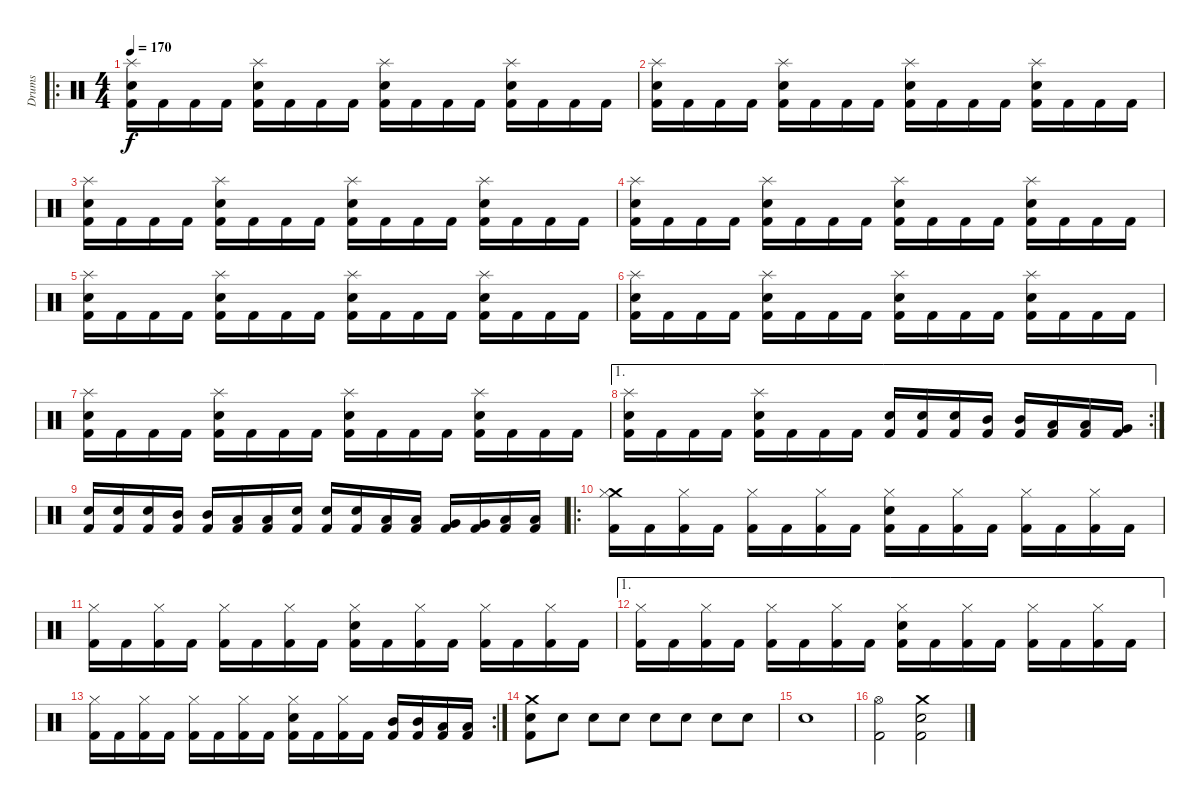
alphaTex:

\track ("Drums" "Drums") {instrument percussion}
\staff {score}
\articulation defaults
\ro
\ts (4 4)
\tempo 170
\clef neutral
\ks c
("Splash (hit)" "Snare (hit) 2" "Kick (hit) 2").16{dy f} "Kick (hit) 2".16 "Kick (hit) 2".16 "Kick (hit) 2".16 ("Splash (hit)" "Snare (hit) 2" "Kick (hit) 2").16 "Kick (hit) 2".16 "Kick (hit) 2".16 "Kick (hit) 2".16 ("Splash (hit)" "Snare (hit) 2" "Kick (hit) 2").16 "Kick (hit) 2".16 "Kick (hit) 2".16 "Kick (hit) 2".16 ("Splash (hit)" "Snare (hit) 2" "Kick (hit) 2").16 "Kick (hit) 2".16 "Kick (hit) 2".16 "Kick (hit) 2".16 |
("Splash (hit)" "Snare (hit) 2" "Kick (hit) 2").16 "Kick (hit) 2".16 "Kick (hit) 2".16 "Kick (hit) 2".16 ("Splash (hit)" "Snare (hit) 2" "Kick (hit) 2").16 "Kick (hit) 2".16 "Kick (hit) 2".16 "Kick (hit) 2".16 ("Splash (hit)" "Snare (hit) 2" "Kick (hit) 2").16 "Kick (hit) 2".16 "Kick (hit) 2".16 "Kick (hit) 2".16 ("Splash (hit)" "Snare (hit) 2" "Kick (hit) 2").16 "Kick (hit) 2".16 "Kick (hit) 2".16 "Kick (hit) 2".16 |
("Splash (hit)" "Snare (hit) 2" "Kick (hit) 2").16 "Kick (hit) 2".16 "Kick (hit) 2".16 "Kick (hit) 2".16 ("Splash (hit)" "Snare (hit) 2" "Kick (hit) 2").16 "Kick (hit) 2".16 "Kick (hit) 2".16 "Kick (hit) 2".16 ("Splash (hit)" "Snare (hit) 2" "Kick (hit) 2").16 "Kick (hit) 2".16 "Kick (hit) 2".16 "Kick (hit) 2".16 ("Splash (hit)" "Snare (hit) 2" "Kick (hit) 2").16 "Kick (hit) 2".16 "Kick (hit) 2".16 "Kick (hit) 2".16 |
("Splash (hit)" "Snare (hit) 2" "Kick (hit) 2").16 "Kick (hit) 2".16 "Kick (hit) 2".16 "Kick (hit) 2".16 ("Splash (hit)" "Snare (hit) 2" "Kick (hit) 2").16 "Kick (hit) 2".16 "Kick (hit) 2".16 "Kick (hit) 2".16 ("Splash (hit)" "Snare (hit) 2" "Kick (hit) 2").16 "Kick (hit) 2".16 "Kick (hit) 2".16 "Kick (hit) 2".16 ("Splash (hit)" "Snare (hit) 2" "Kick (hit) 2").16 "Kick (hit) 2".16 "Kick (hit) 2".16 "Kick (hit) 2".16 |
("Splash (hit)" "Snare (hit) 2" "Kick (hit) 2").16 "Kick (hit) 2".16 "Kick (hit) 2".16 "Kick (hit) 2".16 ("Splash (hit)" "Snare (hit) 2" "Kick (hit) 2").16 "Kick (hit) 2".16 "Kick (hit) 2".16 "Kick (hit) 2".16 ("Splash (hit)" "Snare (hit) 2" "Kick (hit) 2").16 "Kick (hit) 2".16 "Kick (hit) 2".16 "Kick (hit) 2".16 ("Splash (hit)" "Snare (hit) 2" "Kick (hit) 2").16 "Kick (hit) 2".16 "Kick (hit) 2".16 "Kick (hit) 2".16 |
("Splash (hit)" "Snare (hit) 2" "Kick (hit) 2").16 "Kick (hit) 2".16 "Kick (hit) 2".16 "Kick (hit) 2".16 ("Splash (hit)" "Snare (hit) 2" "Kick (hit) 2").16 "Kick (hit) 2".16 "Kick (hit) 2".16 "Kick (hit) 2".16 ("Splash (hit)" "Snare (hit) 2" "Kick (hit) 2").16 "Kick (hit) 2".16 "Kick (hit) 2".16 "Kick (hit) 2".16 ("Splash (hit)" "Snare (hit) 2" "Kick (hit) 2").16 "Kick (hit) 2".16 "Kick (hit) 2".16 "Kick (hit) 2".16 |
("Splash (hit)" "Snare (hit) 2" "Kick (hit) 2").16 "Kick (hit) 2".16 "Kick (hit) 2".16 "Kick (hit) 2".16 ("Splash (hit)" "Snare (hit) 2" "Kick (hit) 2").16 "Kick (hit) 2".16 "Kick (hit) 2".16 "Kick (hit) 2".16 ("Splash (hit)" "Snare (hit) 2" "Kick (hit) 2").16 "Kick (hit) 2".16 "Kick (hit) 2".16 "Kick (hit) 2".16 ("Splash (hit)" "Snare (hit) 2" "Kick (hit) 2").16 "Kick (hit) 2".16 "Kick (hit) 2".16 "Kick (hit) 2".16 |
\ae 1
\rc 2
("Splash (hit)" "Snare (hit) 2" "Kick (hit) 2").16 "Kick (hit) 2".16 "Kick (hit) 2".16 "Kick (hit) 2".16 ("Splash (hit)" "Snare (hit) 2" "Kick (hit) 2").16 "Kick (hit) 2".16 "Kick (hit) 2".16 "Kick (hit) 2".16 ("Snare (hit) 2" "Kick (hit) 2").16 ("Snare (hit) 2" "Kick (hit) 2").16 ("Snare (hit) 2" "Kick (hit) 2").16 ("Mid Tom (hit)" "Kick (hit) 2").16 ("Mid Tom (hit)" "Kick (hit) 2").16 ("Low Tom (hit)" "Kick (hit) 2").16 ("Low Tom (hit)" "Kick (hit) 2").16 ("Very Low Tom (hit)" "Kick (hit) 2").16 |
("Snare (hit) 2" "Kick (hit) 2").16 ("Snare (hit) 2" "Kick (hit) 2").16 ("Snare (hit) 2" "Kick (hit) 2").16 ("Mid Tom (hit)" "Kick (hit) 2").16 ("Mid Tom (hit)" "Kick (hit) 2").16 ("Low Tom (hit)" "Kick (hit) 2").16 ("Low Tom (hit)" "Kick (hit) 2").16 ("Snare (hit) 2" "Kick (hit) 2").16 ("Snare (hit) 2" "Kick (hit) 2").16 ("Snare (hit) 2" "Kick (hit) 2").16 ("Low Tom (hit)" "Kick (hit) 2").16 ("Low Tom (hit)" "Kick (hit) 2").16 ("Very Low Tom (hit)" "Kick (hit) 2").16 ("Very Low Tom (hit)" "Kick (hit) 2").16 ("Low Floor Tom (hit)" "Kick (hit) 2").16 ("Low Floor Tom (hit)" "Kick (hit) 2").16 |
\ro
("Crash medium (hit)" "Hi-Hat (closed)" "Kick (hit) 2").16 "Kick (hit) 2".16 ("Hi-Hat (closed)" "Kick (hit) 2").16 "Kick (hit) 2".16 ("Hi-Hat (closed)" "Kick (hit) 2").16 "Kick (hit) 2".16 ("Hi-Hat (closed)" "Kick (hit) 2").16 "Kick (hit) 2".16 ("Snare (hit) 2" "Hi-Hat (closed)" "Kick (hit) 2").16 "Kick (hit) 2".16 ("Hi-Hat (closed)" "Kick (hit) 2").16 "Kick (hit) 2".16 ("Hi-Hat (closed)" "Kick (hit) 2").16 "Kick (hit) 2".16 ("Hi-Hat (closed)" "Kick (hit) 2").16 "Kick (hit) 2".16 |
("Hi-Hat (closed)" "Kick (hit) 2").16 "Kick (hit) 2".16 ("Hi-Hat (closed)" "Kick (hit) 2").16 "Kick (hit) 2".16 ("Hi-Hat (closed)" "Kick (hit) 2").16 "Kick (hit) 2".16 ("Hi-Hat (closed)" "Kick (hit) 2").16 "Kick (hit) 2".16 ("Snare (hit) 2" "Hi-Hat (closed)" "Kick (hit) 2").16 "Kick (hit) 2".16 ("Hi-Hat (closed)" "Kick (hit) 2").16 "Kick (hit) 2".16 ("Hi-Hat (closed)" "Kick (hit) 2").16 "Kick (hit) 2".16 ("Hi-Hat (closed)" "Kick (hit) 2").16 "Kick (hit) 2".16 |
\ae 1
("Hi-Hat (closed)" "Kick (hit) 2").16 "Kick (hit) 2".16 ("Hi-Hat (closed)" "Kick (hit) 2").16 "Kick (hit) 2".16 ("Hi-Hat (closed)" "Kick (hit) 2").16 "Kick (hit) 2".16 ("Hi-Hat (closed)" "Kick (hit) 2").16 "Kick (hit) 2".16 ("Snare (hit) 2" "Hi-Hat (closed)" "Kick (hit) 2").16 "Kick (hit) 2".16 ("Hi-Hat (closed)" "Kick (hit) 2").16 "Kick (hit) 2".16 ("Hi-Hat (closed)" "Kick (hit) 2").16 "Kick (hit) 2".16 ("Hi-Hat (closed)" "Kick (hit) 2").16 "Kick (hit) 2".16 |
\rc 2
("Hi-Hat (closed)" "Kick (hit) 2").16 "Kick (hit) 2".16 ("Hi-Hat (closed)" "Kick (hit) 2").16 "Kick (hit) 2".16 ("Hi-Hat (closed)" "Kick (hit) 2").16 "Kick (hit) 2".16 ("Hi-Hat (closed)" "Kick (hit) 2").16 "Kick (hit) 2".16 ("Snare (hit) 2" "Hi-Hat (closed)" "Kick (hit) 2").16 "Kick (hit) 2".16 ("Hi-Hat (closed)" "Kick (hit) 2").16 "Kick (hit) 2".16 ("Mid Tom (hit)" "Kick (hit) 2").16 ("Mid Tom (hit)" "Kick (hit) 2").16 ("Low Tom (hit)" "Kick (hit) 2").16 ("Low Tom (hit)" "Kick (hit) 2").16 |
("Crash medium (hit)" "Snare (hit) 2" "Kick (hit) 2").8 "Snare (hit) 2".8 "Snare (hit) 2".8 "Snare (hit) 2".8 "Snare (hit) 2".8 "Snare (hit) 2".8 "Snare (hit) 2".8 "Snare (hit) 2".8 |
"Snare (hit) 2".1 |
("Hi-Hat (open)" "Kick (hit) 2").2 ("Crash medium (hit)" "Snare (hit) 2" "Kick (hit) 2").2
